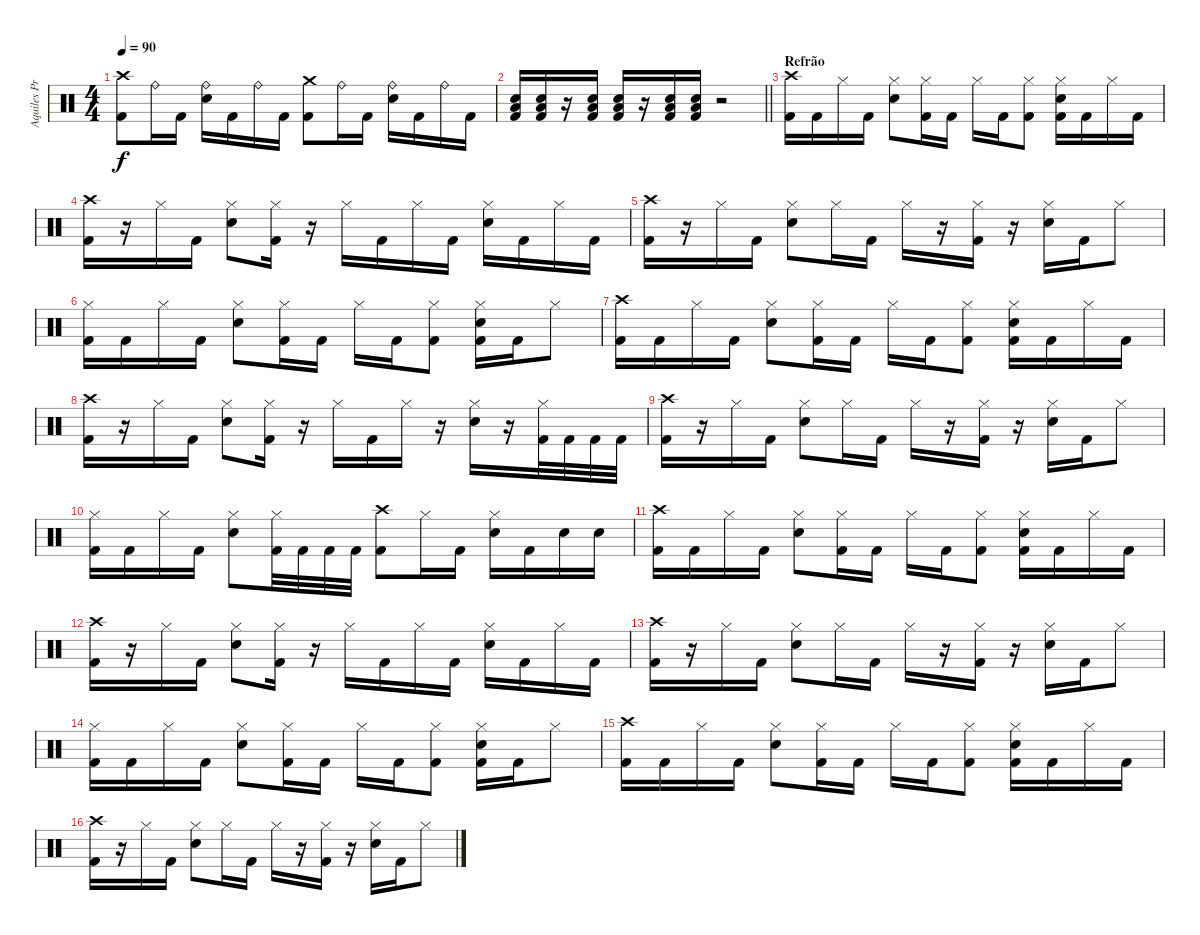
\track ("Aquiles Priester" "Aquiles Pr") {instrument percussion}
\staff {score}
\articulation defaults
\ts (4 4)
\tempo 90
\clef neutral
\ks c
("Crash high (hit)" "Kick (hit) 2").8{dy f} "Ride (bell)".16 "Kick (hit) 2".16 ("Ride (bell)" "Electric Snare (hit)").16 "Kick (hit) 2".16 "Ride (bell)".16 "Kick (hit) 2".16 ("Crash medium (hit)" "Kick (hit) 2").8 "Ride (bell)".16 "Kick (hit) 2".16 ("Ride (bell)" "Electric Snare (hit)").16 "Kick (hit) 2".16 "Ride (bell)".16 "Kick (hit) 2".16 |
\barLineRight lightlight
("Electric Snare (hit)" "Low Tom (hit)" "Kick (hit) 2").16 ("Electric Snare (hit)" "Low Tom (hit)" "Kick (hit) 2").16 r.16 ("Electric Snare (hit)" "Low Tom (hit)" "Kick (hit) 2").16 ("Electric Snare (hit)" "Low Tom (hit)" "Kick (hit) 2").16 r.16 ("Electric Snare (hit)" "Low Tom (hit)" "Kick (hit) 2").16 ("Electric Snare (hit)" "Low Tom (hit)" "Kick (hit) 2").16 r.2 |
\section ("" "Refrão")
("Crash high (hit)" "Kick (hit) 2").16 "Kick (hit) 2".16 "Hi-Hat (closed)".16 "Kick (hit) 2".16 ("Hi-Hat (closed)" "Electric Snare (hit)").8 ("Hi-Hat (closed)" "Kick (hit) 2").16 "Kick (hit) 2".16 "Hi-Hat (closed)".16 "Kick (hit) 2".16 ("Hi-Hat (closed)" "Kick (hit) 2").8 ("Hi-Hat (closed)" "Electric Snare (hit)" "Kick (hit) 2").16 "Kick (hit) 2".16 "Hi-Hat (closed)".16 "Kick (hit) 2".16 |
("Crash high (hit)" "Kick (hit) 2").16 r.16 "Hi-Hat (closed)".16 "Kick (hit) 2".16 ("Hi-Hat (closed)" "Electric Snare (hit)").8 ("Hi-Hat (closed)" "Kick (hit) 2").16 r.16 "Hi-Hat (closed)".16 "Kick (hit) 2".16 "Hi-Hat (closed)".16 "Kick (hit) 2".16 ("Hi-Hat (closed)" "Electric Snare (hit)").16 "Kick (hit) 2".16 "Hi-Hat (closed)".16 "Kick (hit) 2".16 |
("Crash high (hit)" "Kick (hit) 2").16 r.16 "Hi-Hat (closed)".16 "Kick (hit) 2".16 ("Hi-Hat (closed)" "Electric Snare (hit)").8 "Hi-Hat (closed)".16 "Kick (hit) 2".16 "Hi-Hat (closed)".16 r.16 ("Hi-Hat (closed)" "Kick (hit) 2").16 r.16 ("Hi-Hat (closed)" "Electric Snare (hit)").16 "Kick (hit) 2".16 "Hi-Hat (closed)".8 |
("Hi-Hat (closed)" "Kick (hit) 2").16 "Kick (hit) 2".16 "Hi-Hat (closed)".16 "Kick (hit) 2".16 ("Hi-Hat (closed)" "Electric Snare (hit)").8 ("Hi-Hat (closed)" "Kick (hit) 2").16 "Kick (hit) 2".16 "Hi-Hat (closed)".16 "Kick (hit) 2".16 ("Hi-Hat (closed)" "Kick (hit) 2").8 ("Hi-Hat (closed)" "Electric Snare (hit)" "Kick (hit) 2").16 "Kick (hit) 2".16 "Hi-Hat (closed)".8 |
("Crash high (hit)" "Kick (hit) 2").16 "Kick (hit) 2".16 "Hi-Hat (closed)".16 "Kick (hit) 2".16 ("Hi-Hat (closed)" "Electric Snare (hit)").8 ("Hi-Hat (closed)" "Kick (hit) 2").16 "Kick (hit) 2".16 "Hi-Hat (closed)".16 "Kick (hit) 2".16 ("Hi-Hat (closed)" "Kick (hit) 2").8 ("Hi-Hat (closed)" "Electric Snare (hit)" "Kick (hit) 2").16 "Kick (hit) 2".16 "Hi-Hat (closed)".16 "Kick (hit) 2".16 |
("Crash high (hit)" "Kick (hit) 2").16 r.16 "Hi-Hat (closed)".16 "Kick (hit) 2".16 ("Hi-Hat (closed)" "Electric Snare (hit)").8 ("Hi-Hat (closed)" "Kick (hit) 2").16 r.16 "Hi-Hat (closed)".16 "Kick (hit) 2".16 "Hi-Hat (closed)".16 r.16 ("Hi-Hat (closed)" "Electric Snare (hit)").16 r.16 ("Hi-Hat (closed)" "Kick (hit) 2").32 "Kick (hit) 2".32 "Kick (hit) 2".32 "Kick (hit) 2".32 |
("Crash high (hit)" "Kick (hit) 2").16 r.16 "Hi-Hat (closed)".16 "Kick (hit) 2".16 ("Hi-Hat (closed)" "Electric Snare (hit)").8 "Hi-Hat (closed)".16 "Kick (hit) 2".16 "Hi-Hat (closed)".16 r.16 ("Hi-Hat (closed)" "Kick (hit) 2").16 r.16 ("Hi-Hat (closed)" "Electric Snare (hit)").16 "Kick (hit) 2".16 "Hi-Hat (closed)".8 |
("Hi-Hat (closed)" "Kick (hit) 2").16 "Kick (hit) 2".16 "Hi-Hat (closed)".16 "Kick (hit) 2".16 ("Hi-Hat (closed)" "Electric Snare (hit)").8 ("Hi-Hat (closed)" "Kick (hit) 2").32 "Kick (hit) 2".32 "Kick (hit) 2".32 "Kick (hit) 2".32 ("Crash high (hit)" "Kick (hit) 2").8 "Hi-Hat (closed)".16 "Kick (hit) 2".16 ("Hi-Hat (closed)" "Electric Snare (hit)").16 "Kick (hit) 2".16 "Electric Snare (hit)".16 "Electric Snare (hit)".16 |
("Crash high (hit)" "Kick (hit) 2").16 "Kick (hit) 2".16 "Hi-Hat (closed)".16 "Kick (hit) 2".16 ("Hi-Hat (closed)" "Electric Snare (hit)").8 ("Hi-Hat (closed)" "Kick (hit) 2").16 "Kick (hit) 2".16 "Hi-Hat (closed)".16 "Kick (hit) 2".16 ("Hi-Hat (closed)" "Kick (hit) 2").8 ("Hi-Hat (closed)" "Electric Snare (hit)" "Kick (hit) 2").16 "Kick (hit) 2".16 "Hi-Hat (closed)".16 "Kick (hit) 2".16 |
("Crash high (hit)" "Kick (hit) 2").16 r.16 "Hi-Hat (closed)".16 "Kick (hit) 2".16 ("Hi-Hat (closed)" "Electric Snare (hit)").8 ("Hi-Hat (closed)" "Kick (hit) 2").16 r.16 "Hi-Hat (closed)".16 "Kick (hit) 2".16 "Hi-Hat (closed)".16 "Kick (hit) 2".16 ("Hi-Hat (closed)" "Electric Snare (hit)").16 "Kick (hit) 2".16 "Hi-Hat (closed)".16 "Kick (hit) 2".16 |
("Crash high (hit)" "Kick (hit) 2").16 r.16 "Hi-Hat (closed)".16 "Kick (hit) 2".16 ("Hi-Hat (closed)" "Electric Snare (hit)").8 "Hi-Hat (closed)".16 "Kick (hit) 2".16 "Hi-Hat (closed)".16 r.16 ("Hi-Hat (closed)" "Kick (hit) 2").16 r.16 ("Hi-Hat (closed)" "Electric Snare (hit)").16 "Kick (hit) 2".16 "Hi-Hat (closed)".8 |
("Hi-Hat (closed)" "Kick (hit) 2").16 "Kick (hit) 2".16 "Hi-Hat (closed)".16 "Kick (hit) 2".16 ("Hi-Hat (closed)" "Electric Snare (hit)").8 ("Hi-Hat (closed)" "Kick (hit) 2").16 "Kick (hit) 2".16 "Hi-Hat (closed)".16 "Kick (hit) 2".16 ("Hi-Hat (closed)" "Kick (hit) 2").8 ("Hi-Hat (closed)" "Electric Snare (hit)" "Kick (hit) 2").16 "Kick (hit) 2".16 "Hi-Hat (closed)".8 |
("Crash high (hit)" "Kick (hit) 2").16 "Kick (hit) 2".16 "Hi-Hat (closed)".16 "Kick (hit) 2".16 ("Hi-Hat (closed)" "Electric Snare (hit)").8 ("Hi-Hat (closed)" "Kick (hit) 2").16 "Kick (hit) 2".16 "Hi-Hat (closed)".16 "Kick (hit) 2".16 ("Hi-Hat (closed)" "Kick (hit) 2").8 ("Hi-Hat (closed)" "Electric Snare (hit)" "Kick (hit) 2").16 "Kick (hit) 2".16 "Hi-Hat (closed)".16 "Kick (hit) 2".16 |
("Crash high (hit)" "Kick (hit) 2").16 r.16 "Hi-Hat (closed)".16 "Kick (hit) 2".16 ("Hi-Hat (closed)" "Electric Snare (hit)").8 "Hi-Hat (closed)".16 "Kick (hit) 2".16 "Hi-Hat (closed)".16 r.16 ("Hi-Hat (closed)" "Kick (hit) 2").16 r.16 ("Hi-Hat (closed)" "Electric Snare (hit)").16 "Kick (hit) 2".16 "Hi-Hat (closed)".8
